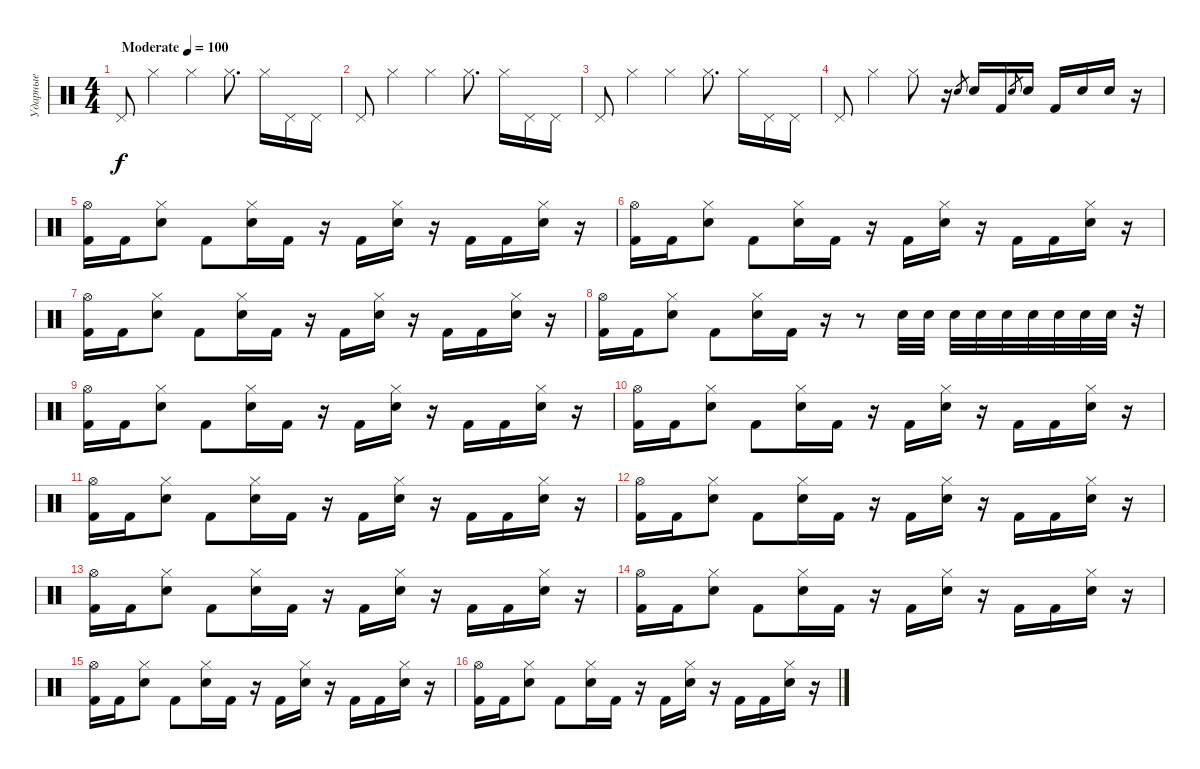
\track ("Ударные" "Ударные") {instrument percussion}
\staff {score}
\articulation defaults
\ts (4 4)
\tempo (100 "Moderate")
\clef neutral
\ks c "Pedal Hi-Hat (hit)".8{dy f} "Hi-Hat (closed)".4 "Hi-Hat (closed)".4 "Hi-Hat (closed)".8{d} "Hi-Hat (closed)".16 "Pedal Hi-Hat (hit)".16 "Pedal Hi-Hat (hit)".16
|
"Pedal Hi-Hat (hit)".8 "Hi-Hat (closed)".4 "Hi-Hat (closed)".4 "Hi-Hat (closed)".8{d} "Hi-Hat (closed)".16 "Pedal Hi-Hat (hit)".16 "Pedal Hi-Hat (hit)".16 |
"Pedal Hi-Hat (hit)".8 "Hi-Hat (closed)".4 "Hi-Hat (closed)".4 "Hi-Hat (closed)".8{d} "Hi-Hat (closed)".16 "Pedal Hi-Hat (hit)".16 "Pedal Hi-Hat (hit)".16 |
"Pedal Hi-Hat (hit)".8 "Hi-Hat (closed)".4 "Hi-Hat (closed)".8 r.16 "Electric Snare (hit)".8{gr} "Electric Snare (hit)".16 "Kick (hit) 2".16 "Electric Snare (hit)".8{gr} "Electric Snare (hit)".16 "Kick (hit) 2".16 "Electric Snare (hit)".16 "Electric Snare (hit)".16 r.16 |
("Hi-Hat (open)" "Kick (hit) 2").16 "Kick (hit) 2".16 ("Hi-Hat (closed)" "Electric Snare (hit)").8 "Kick (hit) 2".8 ("Hi-Hat (closed)" "Electric Snare (hit)").16 "Kick (hit) 2".16 r.16 "Kick (hit) 2".16 ("Hi-Hat (closed)" "Electric Snare (hit)").16 r.16 "Kick (hit) 2".16 "Kick (hit) 2".16 ("Hi-Hat (closed)" "Electric Snare (hit)").16 r.16 |
("Hi-Hat (open)" "Kick (hit) 2").16 "Kick (hit) 2".16 ("Hi-Hat (closed)" "Electric Snare (hit)").8 "Kick (hit) 2".8 ("Hi-Hat (closed)" "Electric Snare (hit)").16 "Kick (hit) 2".16 r.16 "Kick (hit) 2".16 ("Hi-Hat (closed)" "Electric Snare (hit)").16 r.16 "Kick (hit) 2".16 "Kick (hit) 2".16 ("Hi-Hat (closed)" "Electric Snare (hit)").16 r.16 |
("Hi-Hat (open)" "Kick (hit) 2").16 "Kick (hit) 2".16 ("Hi-Hat (closed)" "Electric Snare (hit)").8 "Kick (hit) 2".8 ("Hi-Hat (closed)" "Electric Snare (hit)").16 "Kick (hit) 2".16 r.16 "Kick (hit) 2".16 ("Hi-Hat (closed)" "Electric Snare (hit)").16 r.16 "Kick (hit) 2".16 "Kick (hit) 2".16 ("Hi-Hat (closed)" "Electric Snare (hit)").16 r.16 |
("Hi-Hat (open)" "Kick (hit) 2").16 "Kick (hit) 2".16 ("Hi-Hat (closed)" "Electric Snare (hit)").8 "Kick (hit) 2".8 ("Hi-Hat (closed)" "Electric Snare (hit)").16 "Kick (hit) 2".16 r.16 r.8 "Electric Snare (hit)".32 "Electric Snare (hit)".32 "Electric Snare (hit)".32 "Electric Snare (hit)".32 "Electric Snare (hit)".32 "Electric Snare (hit)".32 "Electric Snare (hit)".32 "Electric Snare (hit)".32 "Electric Snare (hit)".32 r.32 |
("Hi-Hat (open)" "Kick (hit) 2").16 "Kick (hit) 2".16 ("Hi-Hat (closed)" "Electric Snare (hit)").8 "Kick (hit) 2".8 ("Hi-Hat (closed)" "Electric Snare (hit)").16 "Kick (hit) 2".16 r.16 "Kick (hit) 2".16 ("Hi-Hat (closed)" "Electric Snare (hit)").16 r.16 "Kick (hit) 2".16 "Kick (hit) 2".16 ("Hi-Hat (closed)" "Electric Snare (hit)").16 r.16 |
("Hi-Hat (open)" "Kick (hit) 2").16 "Kick (hit) 2".16 ("Hi-Hat (closed)" "Electric Snare (hit)").8 "Kick (hit) 2".8 ("Hi-Hat (closed)" "Electric Snare (hit)").16 "Kick (hit) 2".16 r.16 "Kick (hit) 2".16 ("Hi-Hat (closed)" "Electric Snare (hit)").16 r.16 "Kick (hit) 2".16 "Kick (hit) 2".16 ("Hi-Hat (closed)" "Electric Snare (hit)").16 r.16 |
("Hi-Hat (open)" "Kick (hit) 2").16 "Kick (hit) 2".16 ("Hi-Hat (closed)" "Electric Snare (hit)").8 "Kick (hit) 2".8 ("Hi-Hat (closed)" "Electric Snare (hit)").16 "Kick (hit) 2".16 r.16 "Kick (hit) 2".16 ("Hi-Hat (closed)" "Electric Snare (hit)").16 r.16 "Kick (hit) 2".16 "Kick (hit) 2".16 ("Hi-Hat (closed)" "Electric Snare (hit)").16 r.16 |
("Hi-Hat (open)" "Kick (hit) 2").16 "Kick (hit) 2".16 ("Hi-Hat (closed)" "Electric Snare (hit)").8 "Kick (hit) 2".8 ("Hi-Hat (closed)" "Electric Snare (hit)").16 "Kick (hit) 2".16 r.16 "Kick (hit) 2".16 ("Hi-Hat (closed)" "Electric Snare (hit)").16 r.16 "Kick (hit) 2".16 "Kick (hit) 2".16 ("Hi-Hat (closed)" "Electric Snare (hit)").16 r.16 |
("Hi-Hat (open)" "Kick (hit) 2").16 "Kick (hit) 2".16 ("Hi-Hat (closed)" "Electric Snare (hit)").8 "Kick (hit) 2".8 ("Hi-Hat (closed)" "Electric Snare (hit)").16 "Kick (hit) 2".16 r.16 "Kick (hit) 2".16 ("Hi-Hat (closed)" "Electric Snare (hit)").16 r.16 "Kick (hit) 2".16 "Kick (hit) 2".16 ("Hi-Hat (closed)" "Electric Snare (hit)").16 r.16 |
("Hi-Hat (open)" "Kick (hit) 2").16 "Kick (hit) 2".16 ("Hi-Hat (closed)" "Electric Snare (hit)").8 "Kick (hit) 2".8 ("Hi-Hat (closed)" "Electric Snare (hit)").16 "Kick (hit) 2".16 r.16 "Kick (hit) 2".16 ("Hi-Hat (closed)" "Electric Snare (hit)").16 r.16 "Kick (hit) 2".16 "Kick (hit) 2".16 ("Hi-Hat (closed)" "Electric Snare (hit)").16 r.16 |
("Hi-Hat (open)" "Kick (hit) 2").16 "Kick (hit) 2".16 ("Hi-Hat (closed)" "Electric Snare (hit)").8 "Kick (hit) 2".8 ("Hi-Hat (closed)" "Electric Snare (hit)").16 "Kick (hit) 2".16 r.16 "Kick (hit) 2".16 ("Hi-Hat (closed)" "Electric Snare (hit)").16 r.16 "Kick (hit) 2".16 "Kick (hit) 2".16 ("Hi-Hat (closed)" "Electric Snare (hit)").16 r.16 |
("Hi-Hat (open)" "Kick (hit) 2").16 "Kick (hit) 2".16 ("Hi-Hat (closed)" "Electric Snare (hit)").8 "Kick (hit) 2".8 ("Hi-Hat (closed)" "Electric Snare (hit)").16 "Kick (hit) 2".16 r.16 "Kick (hit) 2".16 ("Hi-Hat (closed)" "Electric Snare (hit)").16 r.16 "Kick (hit) 2".16 "Kick (hit) 2".16 ("Hi-Hat (closed)" "Electric Snare (hit)").16 r.16
